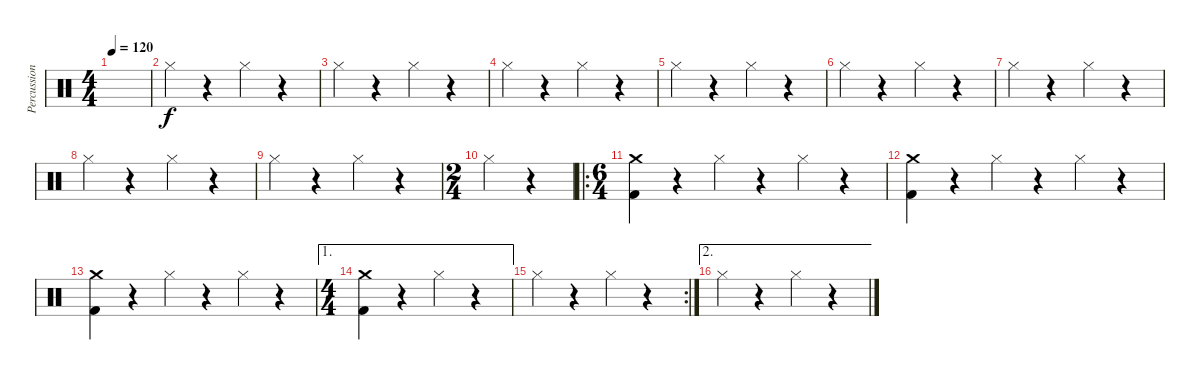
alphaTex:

\track ("Percussions" "Percussion") {instrument percussion}
\staff {score}
\articulation defaults
\ts (4 4)
\tempo 120
\tempo 130
\tempo 120
\clef neutral
\ks c
|
"Hi-Hat (closed)".4 r.4 "Hi-Hat (closed)".4 r.4 |
"Hi-Hat (closed)".4 r.4 "Hi-Hat (closed)".4 r.4 |
"Hi-Hat (closed)".4 r.4 "Hi-Hat (closed)".4 r.4 |
"Hi-Hat (closed)".4 r.4 "Hi-Hat (closed)".4 r.4 |
"Hi-Hat (closed)".4 r.4 "Hi-Hat (closed)".4 r.4 |
"Hi-Hat (closed)".4 r.4 "Hi-Hat (closed)".4 r.4 |
"Hi-Hat (closed)".4 r.4 "Hi-Hat (closed)".4 r.4 |
"Hi-Hat (closed)".4 r.4 "Hi-Hat (closed)".4 r.4 |
\ts (2 4)
"Hi-Hat (closed)".4 r.4 |
\ro
\ts (6 4)
("Crash medium (hit)" "Kick (hit) 2").4 r.4 "Hi-Hat (closed)".4 r.4 "Hi-Hat (closed)".4 r.4 |
("Crash medium (hit)" "Kick (hit) 2").4 r.4 "Hi-Hat (closed)".4 r.4 "Hi-Hat (closed)".4 r.4 |
("Crash medium (hit)" "Kick (hit) 2").4 r.4 "Hi-Hat (closed)".4 r.4 "Hi-Hat (closed)".4 r.4 |
\ae 1
\ts (4 4)
("Crash medium (hit)" "Kick (hit) 2").4 r.4 "Hi-Hat (closed)".4 r.4 |
\rc 2 "Hi-Hat (closed)".4
r.4 "Hi-Hat (closed)".4 r.4 |
\ae 2 "Hi-Hat (closed)".4
r.4 "Hi-Hat (closed)".4 r.4
